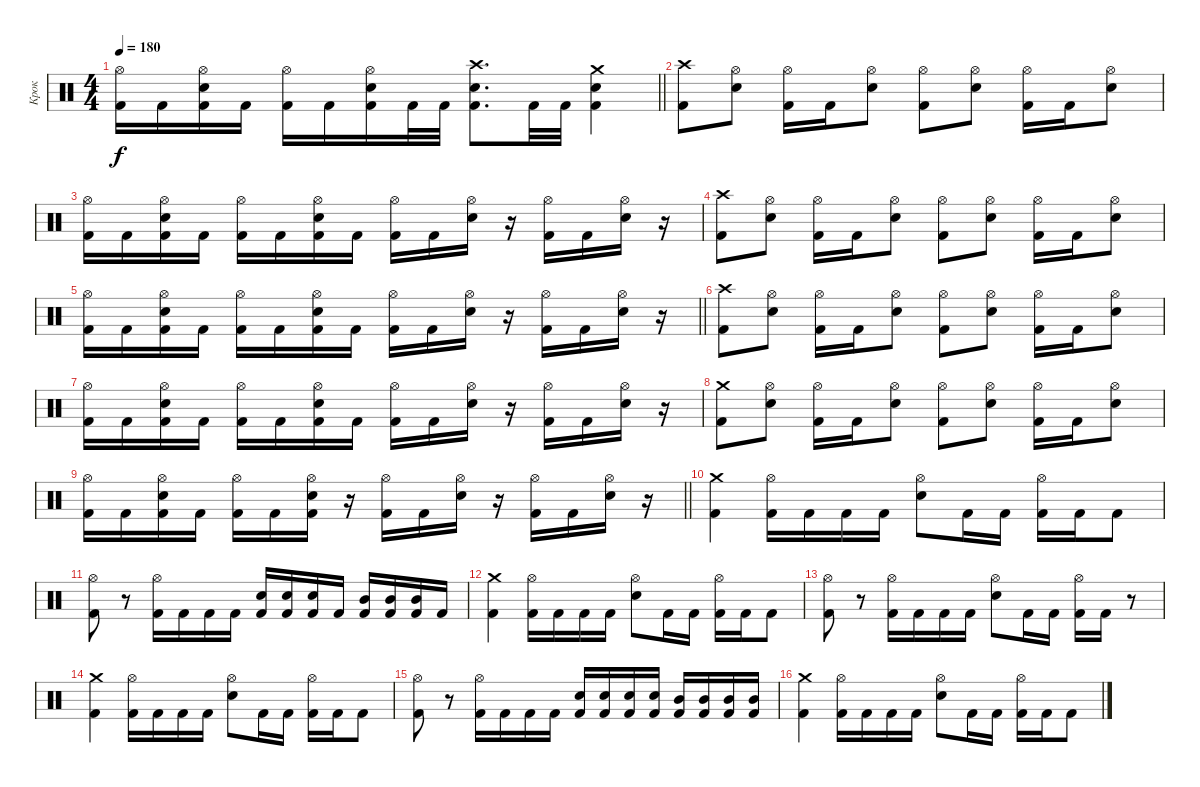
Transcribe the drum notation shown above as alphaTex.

\track ("Крок" "Крок") {instrument percussion}
\staff {score}
\articulation defaults
\ts (4 4)
\tempo 180
\clef neutral
\barLineRight lightlight
\ks c
("Kick (hit) 2" "Hi-Hat (open)").16{dy f} "Kick (hit) 2".16 ("Kick (hit) 2" "Electric Snare (hit)" "Hi-Hat (open)").16 "Kick (hit) 2".16 ("Kick (hit) 2" "Hi-Hat (open)").16 "Kick (hit) 2".16 ("Kick (hit) 2" "Electric Snare (hit)" "Hi-Hat (open)").16 "Kick (hit) 2".32 "Kick (hit) 2".32 ("Electric Snare (hit)" "Kick (hit) 2" "Crash high (hit)").8{d} "Kick (hit) 2".32 "Kick (hit) 2".32 ("Electric Snare (hit)" "Kick (hit) 2" "Crash medium (hit)").4 |
\section ("" "")
("Kick (hit) 2" "Crash high (hit)").8 ("Electric Snare (hit)" "Hi-Hat (open)").8 ("Kick (hit) 2" "Hi-Hat (open)").16 "Kick (hit) 2".16 ("Electric Snare (hit)" "Hi-Hat (open)").8 ("Kick (hit) 2" "Hi-Hat (open)").8 ("Electric Snare (hit)" "Hi-Hat (open)").8 ("Kick (hit) 2" "Hi-Hat (open)").16 "Kick (hit) 2".16 ("Electric Snare (hit)" "Hi-Hat (open)").8 |
("Kick (hit) 2" "Hi-Hat (open)").16 "Kick (hit) 2".16 ("Kick (hit) 2" "Electric Snare (hit)" "Hi-Hat (open)").16 "Kick (hit) 2".16 ("Kick (hit) 2" "Hi-Hat (open)").16 "Kick (hit) 2".16 ("Kick (hit) 2" "Electric Snare (hit)" "Hi-Hat (open)").16 "Kick (hit) 2".16 ("Kick (hit) 2" "Hi-Hat (open)").16 "Kick (hit) 2".16 ("Electric Snare (hit)" "Hi-Hat (open)").16 r.16 ("Kick (hit) 2" "Hi-Hat (open)").16 "Kick (hit) 2".16 ("Electric Snare (hit)" "Hi-Hat (open)").16 r.16 |
("Kick (hit) 2" "Crash high (hit)").8 ("Electric Snare (hit)" "Hi-Hat (open)").8 ("Kick (hit) 2" "Hi-Hat (open)").16 "Kick (hit) 2".16 ("Electric Snare (hit)" "Hi-Hat (open)").8 ("Kick (hit) 2" "Hi-Hat (open)").8 ("Electric Snare (hit)" "Hi-Hat (open)").8 ("Kick (hit) 2" "Hi-Hat (open)").16 "Kick (hit) 2".16 ("Electric Snare (hit)" "Hi-Hat (open)").8 |
\barLineRight lightlight
("Kick (hit) 2" "Hi-Hat (open)").16 "Kick (hit) 2".16 ("Kick (hit) 2" "Electric Snare (hit)" "Hi-Hat (open)").16 "Kick (hit) 2".16 ("Kick (hit) 2" "Hi-Hat (open)").16 "Kick (hit) 2".16 ("Kick (hit) 2" "Electric Snare (hit)" "Hi-Hat (open)").16 "Kick (hit) 2".16 ("Kick (hit) 2" "Hi-Hat (open)").16 "Kick (hit) 2".16 ("Electric Snare (hit)" "Hi-Hat (open)").16 r.16 ("Kick (hit) 2" "Hi-Hat (open)").16 "Kick (hit) 2".16 ("Electric Snare (hit)" "Hi-Hat (open)").16 r.16 |
("Kick (hit) 2" "Crash high (hit)").8 ("Electric Snare (hit)" "Hi-Hat (open)").8 ("Kick (hit) 2" "Hi-Hat (open)").16 "Kick (hit) 2".16 ("Electric Snare (hit)" "Hi-Hat (open)").8 ("Kick (hit) 2" "Hi-Hat (open)").8 ("Electric Snare (hit)" "Hi-Hat (open)").8 ("Kick (hit) 2" "Hi-Hat (open)").16 "Kick (hit) 2".16 ("Electric Snare (hit)" "Hi-Hat (open)").8 |
("Kick (hit) 2" "Hi-Hat (open)").16 "Kick (hit) 2".16 ("Kick (hit) 2" "Electric Snare (hit)" "Hi-Hat (open)").16 "Kick (hit) 2".16 ("Kick (hit) 2" "Hi-Hat (open)").16 "Kick (hit) 2".16 ("Kick (hit) 2" "Electric Snare (hit)" "Hi-Hat (open)").16 "Kick (hit) 2".16 ("Kick (hit) 2" "Hi-Hat (open)").16 "Kick (hit) 2".16 ("Electric Snare (hit)" "Hi-Hat (open)").16 r.16 ("Kick (hit) 2" "Hi-Hat (open)").16 "Kick (hit) 2".16 ("Electric Snare (hit)" "Hi-Hat (open)").16 r.16 |
("Kick (hit) 2" "Crash medium (hit)").8 ("Electric Snare (hit)" "Hi-Hat (open)").8 ("Kick (hit) 2" "Hi-Hat (open)").16 "Kick (hit) 2".16 ("Electric Snare (hit)" "Hi-Hat (open)").8 ("Kick (hit) 2" "Hi-Hat (open)").8 ("Electric Snare (hit)" "Hi-Hat (open)").8 ("Kick (hit) 2" "Hi-Hat (open)").16 "Kick (hit) 2".16 ("Electric Snare (hit)" "Hi-Hat (open)").8 |
\barLineRight lightlight
("Kick (hit) 2" "Hi-Hat (open)").16 "Kick (hit) 2".16 ("Kick (hit) 2" "Electric Snare (hit)" "Hi-Hat (open)").16 "Kick (hit) 2".16 ("Kick (hit) 2" "Hi-Hat (open)").16 "Kick (hit) 2".16 ("Kick (hit) 2" "Electric Snare (hit)" "Hi-Hat (open)").16 r.16 ("Kick (hit) 2" "Hi-Hat (open)").16 "Kick (hit) 2".16 ("Electric Snare (hit)" "Hi-Hat (open)").16 r.16 ("Kick (hit) 2" "Hi-Hat (open)").16 "Kick (hit) 2".16 ("Electric Snare (hit)" "Hi-Hat (open)").16 r.16 |
("Kick (hit) 2" "Crash medium (hit)").4 ("Kick (hit) 2" "Hi-Hat (open)").16 "Kick (hit) 2".16 "Kick (hit) 2".16 "Kick (hit) 2".16 ("Electric Snare (hit)" "Hi-Hat (open)").8 "Kick (hit) 2".16 "Kick (hit) 2".16 ("Kick (hit) 2" "Hi-Hat (open)").16 "Kick (hit) 2".16 "Kick (hit) 2".8 |
("Kick (hit) 2" "Hi-Hat (open)").8 r.8 ("Kick (hit) 2" "Hi-Hat (open)").16 "Kick (hit) 2".16 "Kick (hit) 2".16 "Kick (hit) 2".16 ("Electric Snare (hit)" "Kick (hit) 2").16 ("Electric Snare (hit)" "Kick (hit) 2").16 ("Electric Snare (hit)" "Kick (hit) 2").16 "Kick (hit) 2".16 ("Mid Tom (hit)" "Kick (hit) 2").16 ("Mid Tom (hit)" "Kick (hit) 2").16 ("Mid Tom (hit)" "Kick (hit) 2").16 "Kick (hit) 2".16 |
("Kick (hit) 2" "Crash medium (hit)").4 ("Kick (hit) 2" "Hi-Hat (open)").16 "Kick (hit) 2".16 "Kick (hit) 2".16 "Kick (hit) 2".16 ("Electric Snare (hit)" "Hi-Hat (open)").8 "Kick (hit) 2".16 "Kick (hit) 2".16 ("Kick (hit) 2" "Hi-Hat (open)").16 "Kick (hit) 2".16 "Kick (hit) 2".8 |
("Kick (hit) 2" "Hi-Hat (open)").8 r.8 ("Kick (hit) 2" "Hi-Hat (open)").16 "Kick (hit) 2".16 "Kick (hit) 2".16 "Kick (hit) 2".16 ("Electric Snare (hit)" "Hi-Hat (open)").8 "Kick (hit) 2".16 "Kick (hit) 2".16 ("Kick (hit) 2" "Hi-Hat (open)").16 "Kick (hit) 2".16 r.8 |
("Kick (hit) 2" "Crash medium (hit)").4 ("Kick (hit) 2" "Hi-Hat (open)").16 "Kick (hit) 2".16 "Kick (hit) 2".16 "Kick (hit) 2".16 ("Electric Snare (hit)" "Hi-Hat (open)").8 "Kick (hit) 2".16 "Kick (hit) 2".16 ("Kick (hit) 2" "Hi-Hat (open)").16 "Kick (hit) 2".16 "Kick (hit) 2".8 |
("Kick (hit) 2" "Hi-Hat (open)").8 r.8 ("Kick (hit) 2" "Hi-Hat (open)").16 "Kick (hit) 2".16 "Kick (hit) 2".16 "Kick (hit) 2".16 ("Electric Snare (hit)" "Kick (hit) 2").16 ("Electric Snare (hit)" "Kick (hit) 2").16 ("Electric Snare (hit)" "Kick (hit) 2").16 ("Electric Snare (hit)" "Kick (hit) 2").16 ("Mid Tom (hit)" "Kick (hit) 2").16 ("Mid Tom (hit)" "Kick (hit) 2").16 ("Mid Tom (hit)" "Kick (hit) 2").16 ("Mid Tom (hit)" "Kick (hit) 2").16 |
("Kick (hit) 2" "Crash medium (hit)").4 ("Kick (hit) 2" "Hi-Hat (open)").16 "Kick (hit) 2".16 "Kick (hit) 2".16 "Kick (hit) 2".16 ("Electric Snare (hit)" "Hi-Hat (open)").8 "Kick (hit) 2".16 "Kick (hit) 2".16 ("Kick (hit) 2" "Hi-Hat (open)").16 "Kick (hit) 2".16 "Kick (hit) 2".8
